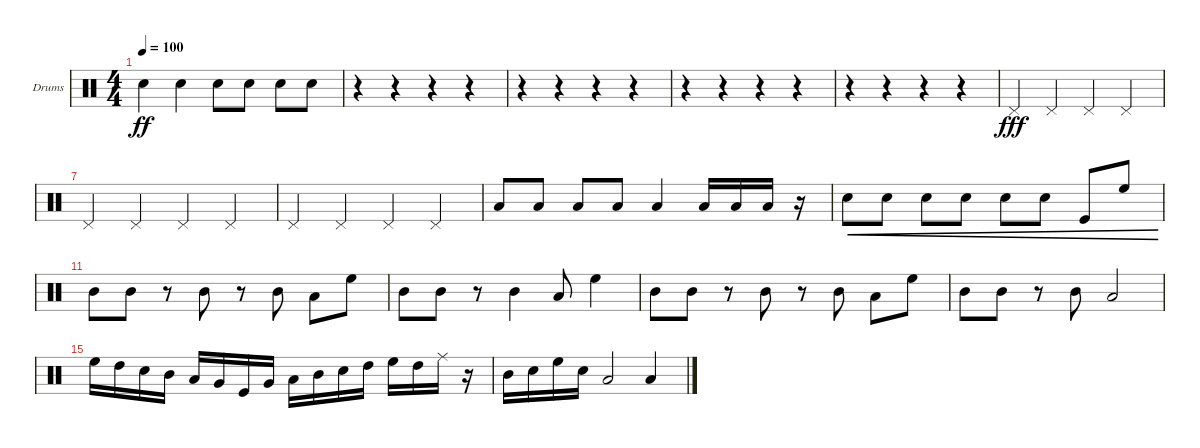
\defaultSystemsLayout 4
\bracketExtendMode groupsimilarinstruments
\firstSystemTrackNameOrientation horizontal
\otherSystemsTrackNameOrientation horizontal
\defaultBarNumberDisplay FirstOfSystem
\track ("Drumkit" "Drums") {instrument percussion}
\staff {score}
\articulation defaults
\ts (4 4)
\tempo 100
\clef neutral
\ks c "Snare (hit) 2".4{dy ff} "Snare (hit) 2".4 "Snare (hit) 2".8 "Snare (hit) 2".8 "Snare (hit) 2".8 "Snare (hit) 2".8
|
r.4 r.4 r.4 r.4 |
r.4 r.4 r.4 r.4 |
r.4 r.4 r.4 r.4 |
r.4 r.4 r.4 r.4 |
"Pedal Hi-Hat (hit)".4{dy fff} "Pedal Hi-Hat (hit)".4 "Pedal Hi-Hat (hit)".4 "Pedal Hi-Hat (hit)".4 |
"Pedal Hi-Hat (hit)".4 "Pedal Hi-Hat (hit)".4 "Pedal Hi-Hat (hit)".4 "Pedal Hi-Hat (hit)".4 |
"Pedal Hi-Hat (hit)".4 "Pedal Hi-Hat (hit)".4 "Pedal Hi-Hat (hit)".4 "Pedal Hi-Hat (hit)".4 |
"Low Tom (hit)".8 "Low Tom (hit)".8 "Low Tom (hit)".8 "Low Tom (hit)".8 "Low Tom (hit)".4 "Low Tom (hit)".16 "Low Tom (hit)".16 "Low Tom (hit)".16 r.16 |
"Snare (hit) 2".8{cre} "Snare (hit) 2".8{cre} "Snare (hit) 2".8{cre} "Snare (hit) 2".8{cre} "Snare (hit) 2".8{cre} "Snare (hit) 2".8{cre} "Kick (hit)".8{cre} "High Floor Tom (hit)".8{cre} |
"Mid Tom (hit)".8 "Mid Tom (hit)".8 r.8 "Mid Tom (hit)".8 r.8 "Mid Tom (hit)".8 "Low Tom (hit)".8 "High Floor Tom (hit)".8 |
"Mid Tom (hit)".8 "Mid Tom (hit)".8 r.8 "Mid Tom (hit)".4 "Low Tom (hit)".8 "High Floor Tom (hit)".4 |
"Mid Tom (hit)".8 "Mid Tom (hit)".8 r.8 "Mid Tom (hit)".8 r.8 "Mid Tom (hit)".8 "Low Tom (hit)".8 "High Floor Tom (hit)".8 |
"Mid Tom (hit)".8 "Mid Tom (hit)".8 r.8 "Mid Tom (hit)".8 "Low Tom (hit)".2 |
"High Floor Tom (hit)".16 "High Tom (hit)".16 "Snare (hit) 2".16 "Mid Tom (hit)".16 "Low Tom (hit)".16 "Very Low Tom (hit)".16 "Kick (hit)".16 "Very Low Tom (hit)".16 "Low Tom (hit)".16 "Mid Tom (hit)".16 "Snare (hit) 2".16 "High Tom (hit)".16 "High Floor Tom (hit)".16 "High Tom (hit)".16 "Ride (middle)".16 r.16 |
"Mid Tom (hit)".16 "Snare (hit) 2".16 "High Floor Tom (hit)".16 "Snare (hit) 2".16 "Low Tom (hit)".2 "Low Tom (hit)".4
